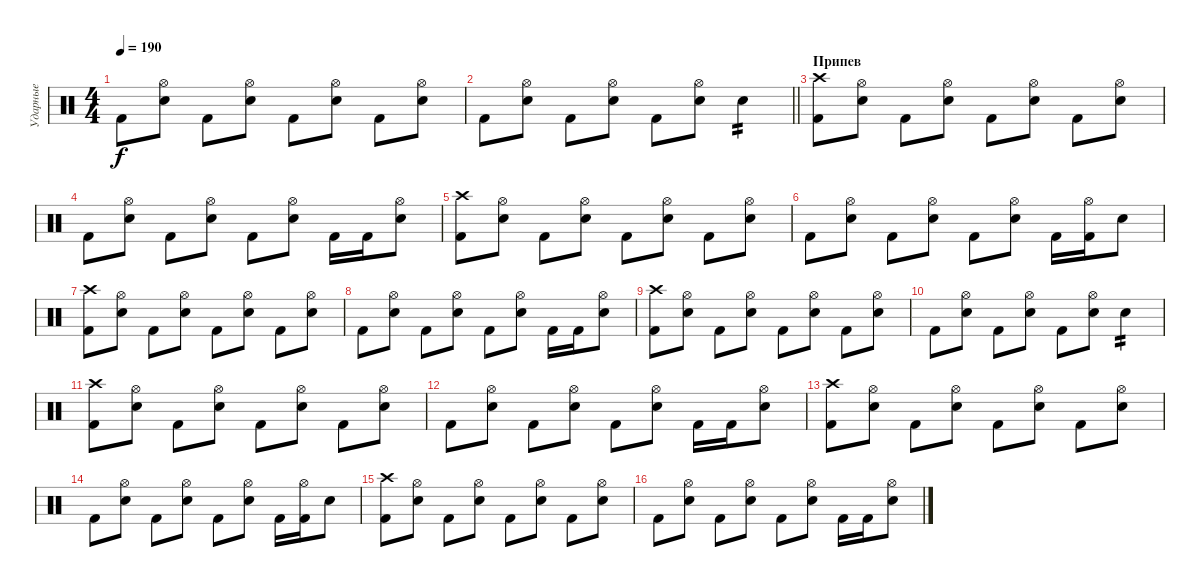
\track ("Ударные" "Ударные") {instrument percussion}
\staff {score}
\articulation defaults
\ts (4 4)
\tempo 190
\clef neutral
\ks c "Kick (hit) 2".8{dy f}
("Hi-Hat (open)" "Electric Snare (hit)").8 "Kick (hit) 2".8 ("Hi-Hat (open)" "Electric Snare (hit)").8 "Kick (hit) 2".8 ("Hi-Hat (open)" "Electric Snare (hit)").8 "Kick (hit) 2".8 ("Hi-Hat (open)" "Electric Snare (hit)").8 |
\barLineRight lightlight "Kick (hit) 2".8
("Hi-Hat (open)" "Electric Snare (hit)").8 "Kick (hit) 2".8 ("Hi-Hat (open)" "Electric Snare (hit)").8 "Kick (hit) 2".8 ("Hi-Hat (open)" "Electric Snare (hit)").8 "Electric Snare (hit)".4{tp 2} |
\section ("" "Припев")
("Crash high (hit)" "Kick (hit) 2").8 ("Hi-Hat (open)" "Electric Snare (hit)").8 "Kick (hit) 2".8 ("Hi-Hat (open)" "Electric Snare (hit)").8 "Kick (hit) 2".8 ("Hi-Hat (open)" "Electric Snare (hit)").8 "Kick (hit) 2".8 ("Hi-Hat (open)" "Electric Snare (hit)").8 |
"Kick (hit) 2".8 ("Hi-Hat (open)" "Electric Snare (hit)").8 "Kick (hit) 2".8 ("Hi-Hat (open)" "Electric Snare (hit)").8 "Kick (hit) 2".8 ("Hi-Hat (open)" "Electric Snare (hit)").8 "Kick (hit) 2".16 "Kick (hit) 2".16 ("Hi-Hat (open)" "Electric Snare (hit)").8 |
("Crash high (hit)" "Kick (hit) 2").8 ("Hi-Hat (open)" "Electric Snare (hit)").8 "Kick (hit) 2".8 ("Hi-Hat (open)" "Electric Snare (hit)").8 "Kick (hit) 2".8 ("Hi-Hat (open)" "Electric Snare (hit)").8 "Kick (hit) 2".8 ("Hi-Hat (open)" "Electric Snare (hit)").8 |
"Kick (hit) 2".8 ("Hi-Hat (open)" "Electric Snare (hit)").8 "Kick (hit) 2".8 ("Hi-Hat (open)" "Electric Snare (hit)").8 "Kick (hit) 2".8 ("Hi-Hat (open)" "Electric Snare (hit)").8 "Kick (hit) 2".16 ("Hi-Hat (open)" "Kick (hit) 2").16 "Electric Snare (hit)".8 |
("Crash high (hit)" "Kick (hit) 2").8 ("Hi-Hat (open)" "Electric Snare (hit)").8 "Kick (hit) 2".8 ("Hi-Hat (open)" "Electric Snare (hit)").8 "Kick (hit) 2".8 ("Hi-Hat (open)" "Electric Snare (hit)").8 "Kick (hit) 2".8 ("Hi-Hat (open)" "Electric Snare (hit)").8 |
"Kick (hit) 2".8 ("Hi-Hat (open)" "Electric Snare (hit)").8 "Kick (hit) 2".8 ("Hi-Hat (open)" "Electric Snare (hit)").8 "Kick (hit) 2".8 ("Hi-Hat (open)" "Electric Snare (hit)").8 "Kick (hit) 2".16 "Kick (hit) 2".16 ("Hi-Hat (open)" "Electric Snare (hit)").8 |
("Crash high (hit)" "Kick (hit) 2").8 ("Hi-Hat (open)" "Electric Snare (hit)").8 "Kick (hit) 2".8 ("Hi-Hat (open)" "Electric Snare (hit)").8 "Kick (hit) 2".8 ("Hi-Hat (open)" "Electric Snare (hit)").8 "Kick (hit) 2".8 ("Hi-Hat (open)" "Electric Snare (hit)").8 |
"Kick (hit) 2".8 ("Hi-Hat (open)" "Electric Snare (hit)").8 "Kick (hit) 2".8 ("Hi-Hat (open)" "Electric Snare (hit)").8 "Kick (hit) 2".8 ("Hi-Hat (open)" "Electric Snare (hit)").8 "Electric Snare (hit)".4{tp 2} |
("Crash high (hit)" "Kick (hit) 2").8 ("Hi-Hat (open)" "Electric Snare (hit)").8 "Kick (hit) 2".8 ("Hi-Hat (open)" "Electric Snare (hit)").8 "Kick (hit) 2".8 ("Hi-Hat (open)" "Electric Snare (hit)").8 "Kick (hit) 2".8 ("Hi-Hat (open)" "Electric Snare (hit)").8 |
"Kick (hit) 2".8 ("Hi-Hat (open)" "Electric Snare (hit)").8 "Kick (hit) 2".8 ("Hi-Hat (open)" "Electric Snare (hit)").8 "Kick (hit) 2".8 ("Hi-Hat (open)" "Electric Snare (hit)").8 "Kick (hit) 2".16 "Kick (hit) 2".16 ("Hi-Hat (open)" "Electric Snare (hit)").8 |
("Crash high (hit)" "Kick (hit) 2").8 ("Hi-Hat (open)" "Electric Snare (hit)").8 "Kick (hit) 2".8 ("Hi-Hat (open)" "Electric Snare (hit)").8 "Kick (hit) 2".8 ("Hi-Hat (open)" "Electric Snare (hit)").8 "Kick (hit) 2".8 ("Hi-Hat (open)" "Electric Snare (hit)").8 |
"Kick (hit) 2".8 ("Hi-Hat (open)" "Electric Snare (hit)").8 "Kick (hit) 2".8 ("Hi-Hat (open)" "Electric Snare (hit)").8 "Kick (hit) 2".8 ("Hi-Hat (open)" "Electric Snare (hit)").8 "Kick (hit) 2".16 ("Hi-Hat (open)" "Kick (hit) 2").16 "Electric Snare (hit)".8 |
("Crash high (hit)" "Kick (hit) 2").8 ("Hi-Hat (open)" "Electric Snare (hit)").8 "Kick (hit) 2".8 ("Hi-Hat (open)" "Electric Snare (hit)").8 "Kick (hit) 2".8 ("Hi-Hat (open)" "Electric Snare (hit)").8 "Kick (hit) 2".8 ("Hi-Hat (open)" "Electric Snare (hit)").8 |
"Kick (hit) 2".8 ("Hi-Hat (open)" "Electric Snare (hit)").8 "Kick (hit) 2".8 ("Hi-Hat (open)" "Electric Snare (hit)").8 "Kick (hit) 2".8 ("Hi-Hat (open)" "Electric Snare (hit)").8 "Kick (hit) 2".16 "Kick (hit) 2".16 ("Hi-Hat (open)" "Electric Snare (hit)").8
